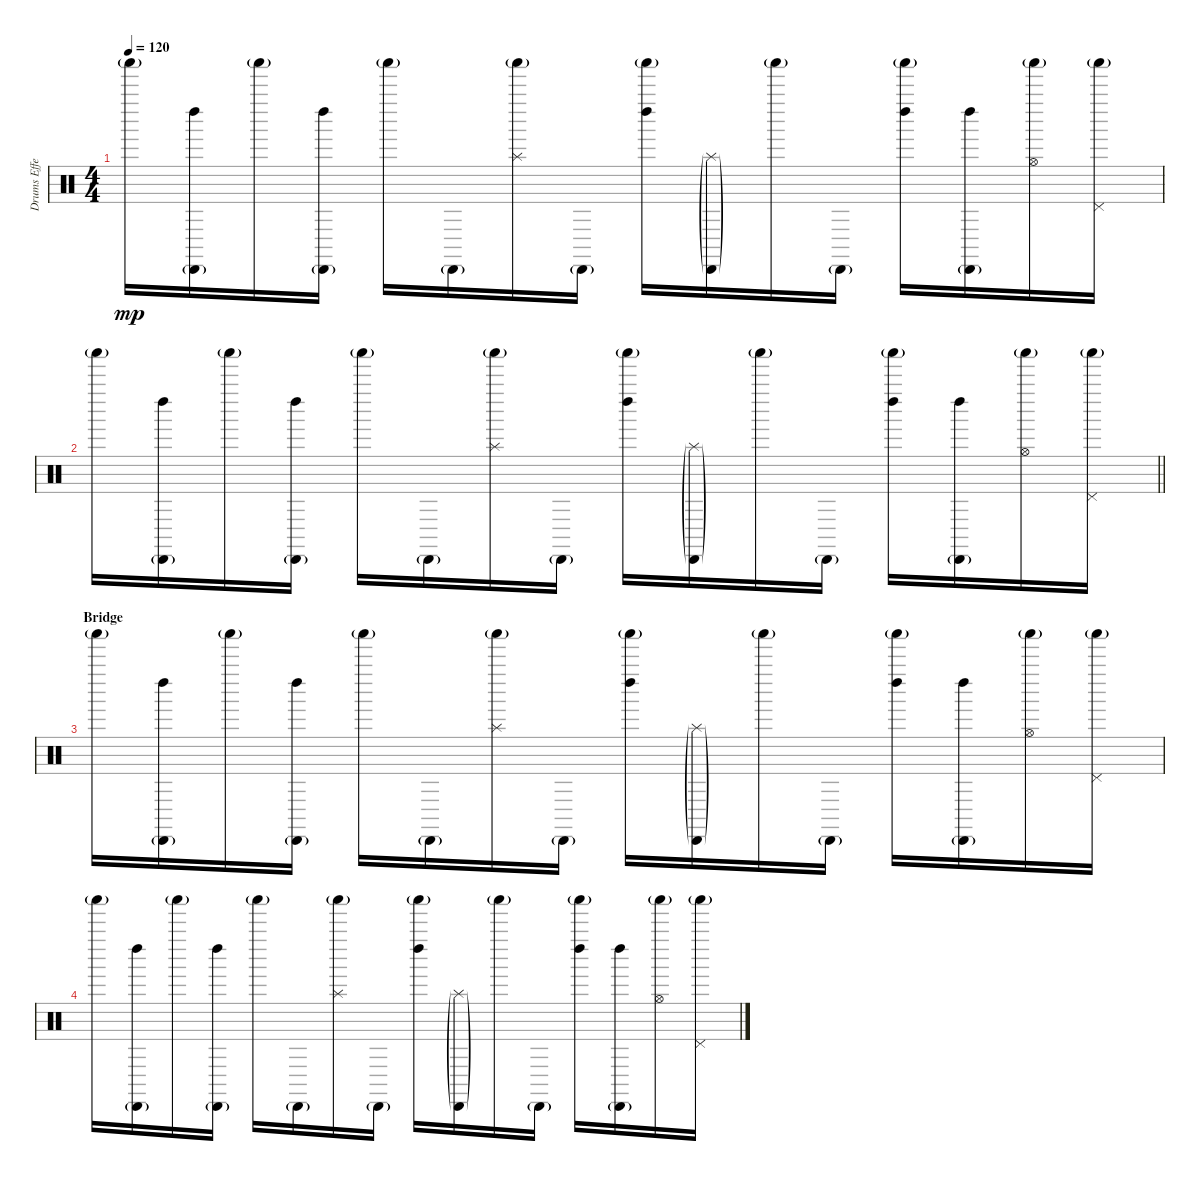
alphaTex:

\track ("Drums Effects" "Drums Effe") {instrument percussion}
\staff {score}
\articulation defaults
\ts (4 4)
\tempo 120
\clef neutral
\ks c "Shaker (hit)"{g}.16{dy mp}
("Cabasa (hit)"{g} "Left Maraca (hit)").16 "Shaker (hit)"{g}.16 ("Cabasa (hit)"{g} "Left Maraca (hit)").16 "Shaker (hit)"{g}.16 "Cabasa (hit)"{g}.16 ("Shaker (hit)"{g} "Splash (hit)").16 "Cabasa (hit)"{g}.16 ("Shaker (hit)"{g} "Left Maraca (hit)").16 ("Cabasa (hit)"{g} "Splash (hit)"{g}).16 "Shaker (hit)"{g}.16 "Cabasa (hit)"{g}.16 ("Shaker (hit)"{g} "Left Maraca (hit)").16 ("Cabasa (hit)"{g} "Left Maraca (hit)").16 ("Shaker (hit)"{g} "Hi-Hat (open)").16 ("Shaker (hit)"{g} "Pedal Hi-Hat (hit)").16 |
\barLineRight lightlight "Shaker (hit)"{g}.16
("Cabasa (hit)"{g} "Left Maraca (hit)").16 "Shaker (hit)"{g}.16 ("Cabasa (hit)"{g} "Left Maraca (hit)").16 "Shaker (hit)"{g}.16 "Cabasa (hit)"{g}.16 ("Shaker (hit)"{g} "Splash (hit)").16 "Cabasa (hit)"{g}.16 ("Shaker (hit)"{g} "Left Maraca (hit)").16 ("Cabasa (hit)"{g} "Splash (hit)"{g}).16 "Shaker (hit)"{g}.16 "Cabasa (hit)"{g}.16 ("Shaker (hit)"{g} "Left Maraca (hit)").16 ("Cabasa (hit)"{g} "Left Maraca (hit)").16 ("Shaker (hit)"{g} "Hi-Hat (open)").16 ("Shaker (hit)"{g} "Pedal Hi-Hat (hit)").16 |
\section ("" "Bridge")
"Shaker (hit)"{g}.16 ("Cabasa (hit)"{g} "Left Maraca (hit)").16 "Shaker (hit)"{g}.16 ("Cabasa (hit)"{g} "Left Maraca (hit)").16 "Shaker (hit)"{g}.16 "Cabasa (hit)"{g}.16 ("Shaker (hit)"{g} "Splash (hit)").16 "Cabasa (hit)"{g}.16 ("Shaker (hit)"{g} "Left Maraca (hit)").16 ("Cabasa (hit)"{g} "Splash (hit)"{g}).16 "Shaker (hit)"{g}.16 "Cabasa (hit)"{g}.16 ("Shaker (hit)"{g} "Left Maraca (hit)").16 ("Cabasa (hit)"{g} "Left Maraca (hit)").16 ("Shaker (hit)"{g} "Hi-Hat (open)").16 ("Shaker (hit)"{g} "Pedal Hi-Hat (hit)").16 |
"Shaker (hit)"{g}.16 ("Cabasa (hit)"{g} "Left Maraca (hit)").16 "Shaker (hit)"{g}.16 ("Cabasa (hit)"{g} "Left Maraca (hit)").16 "Shaker (hit)"{g}.16 "Cabasa (hit)"{g}.16 ("Shaker (hit)"{g} "Splash (hit)").16 "Cabasa (hit)"{g}.16 ("Shaker (hit)"{g} "Left Maraca (hit)").16 ("Cabasa (hit)"{g} "Splash (hit)"{g}).16 "Shaker (hit)"{g}.16 "Cabasa (hit)"{g}.16 ("Shaker (hit)"{g} "Left Maraca (hit)").16 ("Cabasa (hit)"{g} "Left Maraca (hit)").16 ("Shaker (hit)"{g} "Hi-Hat (open)").16 ("Shaker (hit)"{g} "Pedal Hi-Hat (hit)").16
